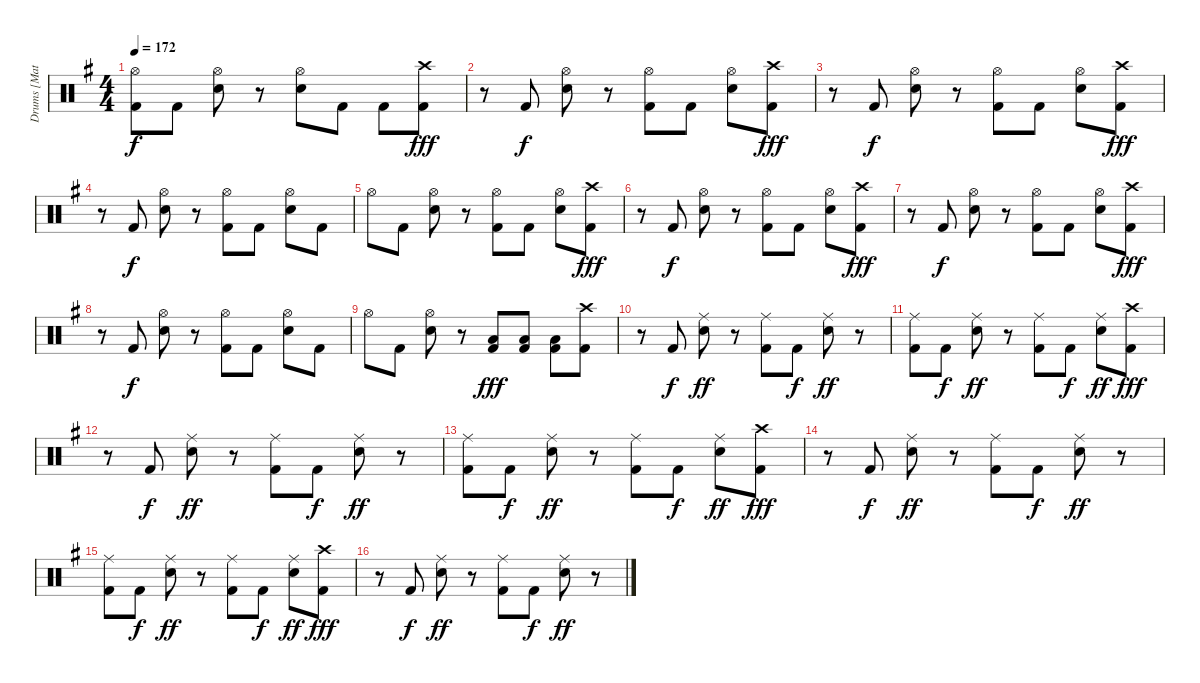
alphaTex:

\track ("Drums [Matt]" "Drums [Mat") {instrument percussion}
\staff {score}
\articulation defaults
\ts (4 4)
\tempo 172
\clef neutral
\ks g
("Hi-Hat (open)" "Kick (hit) 2").8{dy f} "Kick (hit) 2".8 ("Hi-Hat (open)" "Snare (hit) 2").8 r.8 ("Hi-Hat (open)" "Snare (hit) 2").8 "Kick (hit) 2".8 "Kick (hit) 2".8 ("Kick (hit) 2" "Crash high (hit)").8{dy fff} |
r.8 "Kick (hit) 2".8{dy f} ("Hi-Hat (open)" "Snare (hit) 2").8 r.8 ("Hi-Hat (open)" "Kick (hit) 2").8 "Kick (hit) 2".8 ("Hi-Hat (open)" "Snare (hit) 2").8 ("Kick (hit) 2" "Crash high (hit)").8{dy fff} |
r.8 "Kick (hit) 2".8{dy f} ("Hi-Hat (open)" "Snare (hit) 2").8 r.8 ("Hi-Hat (open)" "Kick (hit) 2").8 "Kick (hit) 2".8 ("Hi-Hat (open)" "Snare (hit) 2").8 ("Kick (hit) 2" "Crash high (hit)").8{dy fff} |
r.8 "Kick (hit) 2".8{dy f} ("Hi-Hat (open)" "Snare (hit) 2").8 r.8 ("Hi-Hat (open)" "Kick (hit) 2").8 "Kick (hit) 2".8 ("Hi-Hat (open)" "Snare (hit) 2").8 "Kick (hit) 2".8 |
"Hi-Hat (open)".8 "Kick (hit) 2".8 ("Hi-Hat (open)" "Snare (hit) 2").8 r.8 ("Hi-Hat (open)" "Kick (hit) 2").8 "Kick (hit) 2".8 ("Hi-Hat (open)" "Snare (hit) 2").8 ("Kick (hit) 2" "Crash high (hit)").8{dy fff} |
r.8 "Kick (hit) 2".8{dy f} ("Hi-Hat (open)" "Snare (hit) 2").8 r.8 ("Hi-Hat (open)" "Kick (hit) 2").8 "Kick (hit) 2".8 ("Hi-Hat (open)" "Snare (hit) 2").8 ("Kick (hit) 2" "Crash high (hit)").8{dy fff} |
r.8 "Kick (hit) 2".8{dy f} ("Hi-Hat (open)" "Snare (hit) 2").8 r.8 ("Hi-Hat (open)" "Kick (hit) 2").8 "Kick (hit) 2".8 ("Hi-Hat (open)" "Snare (hit) 2").8 ("Kick (hit) 2" "Crash high (hit)").8{dy fff} |
r.8 "Kick (hit) 2".8{dy f} ("Hi-Hat (open)" "Snare (hit) 2").8 r.8 ("Hi-Hat (open)" "Kick (hit) 2").8 "Kick (hit) 2".8 ("Hi-Hat (open)" "Snare (hit) 2").8 "Kick (hit) 2".8 |
"Hi-Hat (open)".8 "Kick (hit) 2".8 ("Hi-Hat (open)" "Snare (hit) 2").8 r.8 ("Kick (hit) 2" "Low Tom (hit)").8{dy fff} ("Kick (hit) 2" "Low Tom (hit)").8 ("Kick (hit) 2" "Low Tom (hit)").8 ("Kick (hit) 2" "Crash high (hit)").8 |
r.8 "Kick (hit) 2".8{dy f} ("Ride (middle)" "Snare (hit) 2").8{dy ff} r.8 ("Ride (middle)" "Kick (hit) 2").8 "Kick (hit) 2".8{dy f} ("Ride (middle)" "Snare (hit) 2").8{dy ff} r.8 |
("Ride (middle)" "Kick (hit) 2").8 "Kick (hit) 2".8{dy f} ("Ride (middle)" "Snare (hit) 2").8{dy ff} r.8 ("Ride (middle)" "Kick (hit) 2").8 "Kick (hit) 2".8{dy f} ("Ride (middle)" "Snare (hit) 2").8{dy ff} ("Kick (hit) 2" "Crash high (hit)").8{dy fff} |
r.8 "Kick (hit) 2".8{dy f} ("Ride (middle)" "Snare (hit) 2").8{dy ff} r.8 ("Ride (middle)" "Kick (hit) 2").8 "Kick (hit) 2".8{dy f} ("Ride (middle)" "Snare (hit) 2").8{dy ff} r.8 |
("Ride (middle)" "Kick (hit) 2").8 "Kick (hit) 2".8{dy f} ("Ride (middle)" "Snare (hit) 2").8{dy ff} r.8 ("Ride (middle)" "Kick (hit) 2").8 "Kick (hit) 2".8{dy f} ("Ride (middle)" "Snare (hit) 2").8{dy ff} ("Kick (hit) 2" "Crash high (hit)").8{dy fff} |
r.8 "Kick (hit) 2".8{dy f} ("Ride (middle)" "Snare (hit) 2").8{dy ff} r.8 ("Ride (middle)" "Kick (hit) 2").8 "Kick (hit) 2".8{dy f} ("Ride (middle)" "Snare (hit) 2").8{dy ff} r.8 |
("Ride (middle)" "Kick (hit) 2").8 "Kick (hit) 2".8{dy f} ("Ride (middle)" "Snare (hit) 2").8{dy ff} r.8 ("Ride (middle)" "Kick (hit) 2").8 "Kick (hit) 2".8{dy f} ("Ride (middle)" "Snare (hit) 2").8{dy ff} ("Kick (hit) 2" "Crash high (hit)").8{dy fff} |
r.8 "Kick (hit) 2".8{dy f} ("Ride (middle)" "Snare (hit) 2").8{dy ff} r.8 ("Ride (middle)" "Kick (hit) 2").8 "Kick (hit) 2".8{dy f} ("Ride (middle)" "Snare (hit) 2").8{dy ff} r.8
